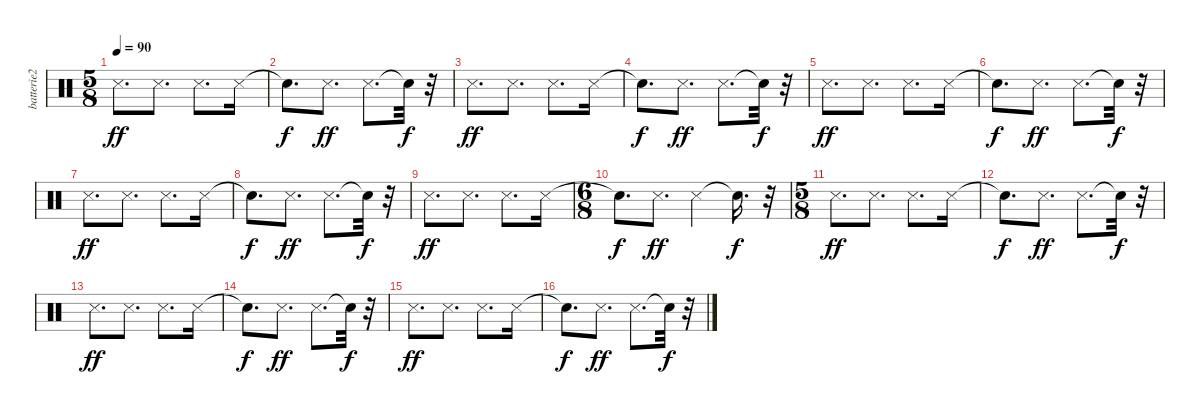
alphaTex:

\track ("batterie2" "batterie2") {instrument percussion}
\staff {score}
\articulation defaults
\ts (5 8)
\tempo 90
\clef neutral
\ks c "Snare (side stick) 3".8{d dy ff} "Snare (side stick) 3".8{d} "Snare (side stick) 3".8{d} "Snare (side stick) 3".16
|
"Snare (hit)"{t}.8{d dy f} "Snare (side stick) 3".8{d dy ff} "Snare (side stick) 3".8{d} "Snare (hit)"{t}.32{dy f} r.32 |
"Snare (side stick) 3".8{d dy ff} "Snare (side stick) 3".8{d} "Snare (side stick) 3".8{d} "Snare (side stick) 3".16 |
"Snare (hit)"{t}.8{d dy f} "Snare (side stick) 3".8{d dy ff} "Snare (side stick) 3".8{d} "Snare (hit)"{t}.32{dy f} r.32 |
"Snare (side stick) 3".8{d dy ff} "Snare (side stick) 3".8{d} "Snare (side stick) 3".8{d} "Snare (side stick) 3".16 |
"Snare (hit)"{t}.8{d dy f} "Snare (side stick) 3".8{d dy ff} "Snare (side stick) 3".8{d} "Snare (hit)"{t}.32{dy f} r.32 |
"Snare (side stick) 3".8{d dy ff} "Snare (side stick) 3".8{d} "Snare (side stick) 3".8{d} "Snare (side stick) 3".16 |
"Snare (hit)"{t}.8{d dy f} "Snare (side stick) 3".8{d dy ff} "Snare (side stick) 3".8{d} "Snare (hit)"{t}.32{dy f} r.32 |
"Snare (side stick) 3".8{d dy ff} "Snare (side stick) 3".8{d} "Snare (side stick) 3".8{d} "Snare (side stick) 3".16 |
\ts (6 8)
"Snare (hit)"{t}.8{d dy f} "Snare (side stick) 3".8{d dy ff} "Snare (side stick) 3".4 "Snare (hit)"{t}.16{d dy f} r.32 |
\ts (5 8)
"Snare (side stick) 3".8{d dy ff} "Snare (side stick) 3".8{d} "Snare (side stick) 3".8{d} "Snare (side stick) 3".16 |
"Snare (hit)"{t}.8{d dy f} "Snare (side stick) 3".8{d dy ff} "Snare (side stick) 3".8{d} "Snare (hit)"{t}.32{dy f} r.32 |
"Snare (side stick) 3".8{d dy ff} "Snare (side stick) 3".8{d} "Snare (side stick) 3".8{d} "Snare (side stick) 3".16 |
"Snare (hit)"{t}.8{d dy f} "Snare (side stick) 3".8{d dy ff} "Snare (side stick) 3".8{d} "Snare (hit)"{t}.32{dy f} r.32 |
"Snare (side stick) 3".8{d dy ff} "Snare (side stick) 3".8{d} "Snare (side stick) 3".8{d} "Snare (side stick) 3".16 |
"Snare (hit)"{t}.8{d dy f} "Snare (side stick) 3".8{d dy ff} "Snare (side stick) 3".8{d} "Snare (hit)"{t}.32{dy f} r.32
